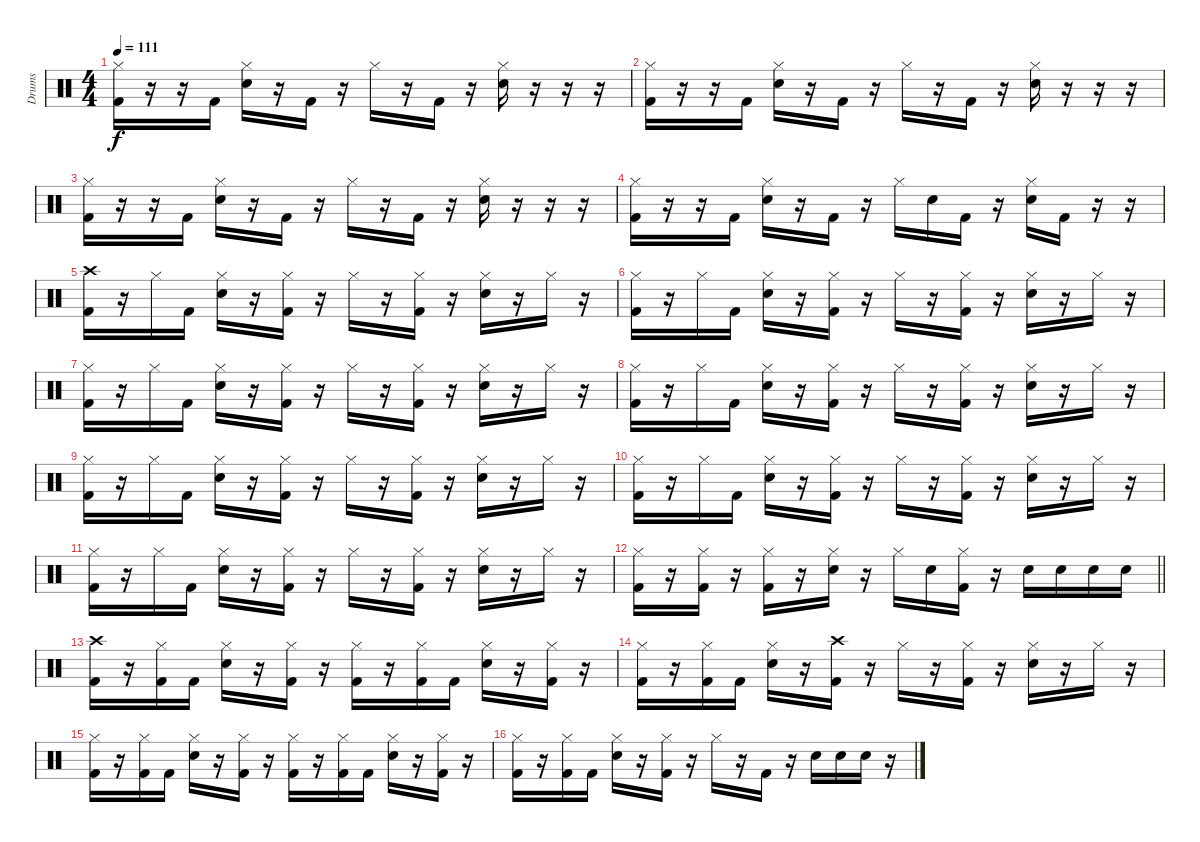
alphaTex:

\track ("Drums" "Drums") {instrument percussion}
\staff {score}
\articulation defaults
\ts (4 4)
\tempo 111
\clef neutral
\ks c
("Hi-Hat (closed)" "Kick (hit) 2").16{dy f} r.16 r.16 "Kick (hit) 2".16 ("Hi-Hat (closed)" "Snare (hit) 2").16 r.16 "Kick (hit) 2".16 r.16 "Hi-Hat (closed)".16 r.16 "Kick (hit) 2".16 r.16 ("Hi-Hat (closed)" "Snare (hit) 2").16 r.16 r.16 r.16 |
("Hi-Hat (closed)" "Kick (hit) 2").16 r.16 r.16 "Kick (hit) 2".16 ("Hi-Hat (closed)" "Snare (hit) 2").16 r.16 "Kick (hit) 2".16 r.16 "Hi-Hat (closed)".16 r.16 "Kick (hit) 2".16 r.16 ("Hi-Hat (closed)" "Snare (hit) 2").16 r.16 r.16 r.16 |
("Hi-Hat (closed)" "Kick (hit) 2").16 r.16 r.16 "Kick (hit) 2".16 ("Hi-Hat (closed)" "Snare (hit) 2").16 r.16 "Kick (hit) 2".16 r.16 "Hi-Hat (closed)".16 r.16 "Kick (hit) 2".16 r.16 ("Hi-Hat (closed)" "Snare (hit) 2").16 r.16 r.16 r.16 |
("Hi-Hat (closed)" "Kick (hit) 2").16 r.16 r.16 "Kick (hit) 2".16 ("Hi-Hat (closed)" "Snare (hit) 2").16 r.16 "Kick (hit) 2".16 r.16 "Hi-Hat (closed)".16 "Snare (hit) 2".16 "Kick (hit) 2".16 r.16 ("Hi-Hat (closed)" "Snare (hit) 2").16 "Kick (hit) 2".16 r.16 r.16 |
("Crash high (hit)" "Kick (hit) 2").16 r.16 "Hi-Hat (closed)".16 "Kick (hit) 2".16 ("Hi-Hat (closed)" "Snare (hit) 2").16 r.16 ("Hi-Hat (closed)" "Kick (hit) 2").16 r.16 "Hi-Hat (closed)".16 r.16 ("Hi-Hat (closed)" "Kick (hit) 2").16 r.16 ("Hi-Hat (closed)" "Snare (hit) 2").16 r.16 "Hi-Hat (closed)".16 r.16 |
("Hi-Hat (closed)" "Kick (hit) 2").16 r.16 "Hi-Hat (closed)".16 "Kick (hit) 2".16 ("Hi-Hat (closed)" "Snare (hit) 2").16 r.16 ("Hi-Hat (closed)" "Kick (hit) 2").16 r.16 "Hi-Hat (closed)".16 r.16 ("Hi-Hat (closed)" "Kick (hit) 2").16 r.16 ("Hi-Hat (closed)" "Snare (hit) 2").16 r.16 "Hi-Hat (closed)".16 r.16 |
("Hi-Hat (closed)" "Kick (hit) 2").16 r.16 "Hi-Hat (closed)".16 "Kick (hit) 2".16 ("Hi-Hat (closed)" "Snare (hit) 2").16 r.16 ("Hi-Hat (closed)" "Kick (hit) 2").16 r.16 "Hi-Hat (closed)".16 r.16 ("Hi-Hat (closed)" "Kick (hit) 2").16 r.16 ("Hi-Hat (closed)" "Snare (hit) 2").16 r.16 "Hi-Hat (closed)".16 r.16 |
("Hi-Hat (closed)" "Kick (hit) 2").16 r.16 "Hi-Hat (closed)".16 "Kick (hit) 2".16 ("Hi-Hat (closed)" "Snare (hit) 2").16 r.16 ("Hi-Hat (closed)" "Kick (hit) 2").16 r.16 "Hi-Hat (closed)".16 r.16 ("Hi-Hat (closed)" "Kick (hit) 2").16 r.16 ("Hi-Hat (closed)" "Snare (hit) 2").16 r.16 "Hi-Hat (closed)".16 r.16 |
("Hi-Hat (closed)" "Kick (hit) 2").16 r.16 "Hi-Hat (closed)".16 "Kick (hit) 2".16 ("Hi-Hat (closed)" "Snare (hit) 2").16 r.16 ("Hi-Hat (closed)" "Kick (hit) 2").16 r.16 "Hi-Hat (closed)".16 r.16 ("Hi-Hat (closed)" "Kick (hit) 2").16 r.16 ("Hi-Hat (closed)" "Snare (hit) 2").16 r.16 "Hi-Hat (closed)".16 r.16 |
("Hi-Hat (closed)" "Kick (hit) 2").16 r.16 "Hi-Hat (closed)".16 "Kick (hit) 2".16 ("Hi-Hat (closed)" "Snare (hit) 2").16 r.16 ("Hi-Hat (closed)" "Kick (hit) 2").16 r.16 "Hi-Hat (closed)".16 r.16 ("Hi-Hat (closed)" "Kick (hit) 2").16 r.16 ("Hi-Hat (closed)" "Snare (hit) 2").16 r.16 "Hi-Hat (closed)".16 r.16 |
("Hi-Hat (closed)" "Kick (hit) 2").16 r.16 "Hi-Hat (closed)".16 "Kick (hit) 2".16 ("Hi-Hat (closed)" "Snare (hit) 2").16 r.16 ("Hi-Hat (closed)" "Kick (hit) 2").16 r.16 "Hi-Hat (closed)".16 r.16 ("Hi-Hat (closed)" "Kick (hit) 2").16 r.16 ("Hi-Hat (closed)" "Snare (hit) 2").16 r.16 "Hi-Hat (closed)".16 r.16 |
\barLineRight lightlight
("Hi-Hat (closed)" "Kick (hit) 2").16 r.16 ("Hi-Hat (closed)" "Kick (hit) 2").16 r.16 ("Hi-Hat (closed)" "Kick (hit) 2").16 r.16 ("Hi-Hat (closed)" "Snare (hit) 2").16 r.16 "Hi-Hat (closed)".16 "Snare (hit) 2".16 ("Hi-Hat (closed)" "Kick (hit) 2").16 r.16 "Snare (hit) 2".16 "Snare (hit) 2".16 "Snare (hit) 2".16 "Snare (hit) 2".16 |
("Crash high (hit)" "Kick (hit) 2").16 r.16 ("Hi-Hat (closed)" "Kick (hit) 2").16 "Kick (hit) 2".16 ("Hi-Hat (closed)" "Snare (hit) 2").16 r.16 ("Hi-Hat (closed)" "Kick (hit) 2").16 r.16 ("Hi-Hat (closed)" "Kick (hit) 2").16 r.16 ("Hi-Hat (closed)" "Kick (hit) 2").16 "Kick (hit) 2".16 ("Hi-Hat (closed)" "Snare (hit) 2").16 r.16 ("Hi-Hat (closed)" "Kick (hit) 2").16 r.16 |
("Hi-Hat (closed)" "Kick (hit) 2").16 r.16 ("Hi-Hat (closed)" "Kick (hit) 2").16 "Kick (hit) 2".16 ("Hi-Hat (closed)" "Snare (hit) 2").16 r.16 ("Crash high (hit)" "Kick (hit) 2").16 r.16 "Hi-Hat (closed)".16 r.16 ("Hi-Hat (closed)" "Kick (hit) 2").16 r.16 ("Hi-Hat (closed)" "Snare (hit) 2").16 r.16 "Hi-Hat (closed)".16 r.16 |
("Hi-Hat (closed)" "Kick (hit) 2").16 r.16 ("Hi-Hat (closed)" "Kick (hit) 2").16 "Kick (hit) 2".16 ("Hi-Hat (closed)" "Snare (hit) 2").16 r.16 ("Hi-Hat (closed)" "Kick (hit) 2").16 r.16 ("Hi-Hat (closed)" "Kick (hit) 2").16 r.16 ("Hi-Hat (closed)" "Kick (hit) 2").16 "Kick (hit) 2".16 ("Hi-Hat (closed)" "Snare (hit) 2").16 r.16 ("Hi-Hat (closed)" "Kick (hit) 2").16 r.16 |
("Hi-Hat (closed)" "Kick (hit) 2").16 r.16 ("Hi-Hat (closed)" "Kick (hit) 2").16 "Kick (hit) 2".16 ("Hi-Hat (closed)" "Snare (hit) 2").16 r.16 ("Hi-Hat (closed)" "Kick (hit) 2").16 r.16 "Hi-Hat (closed)".16 r.16 "Kick (hit) 2".16 r.16 "Snare (hit) 2".16 "Snare (hit) 2".16 "Snare (hit) 2".16 r.16
